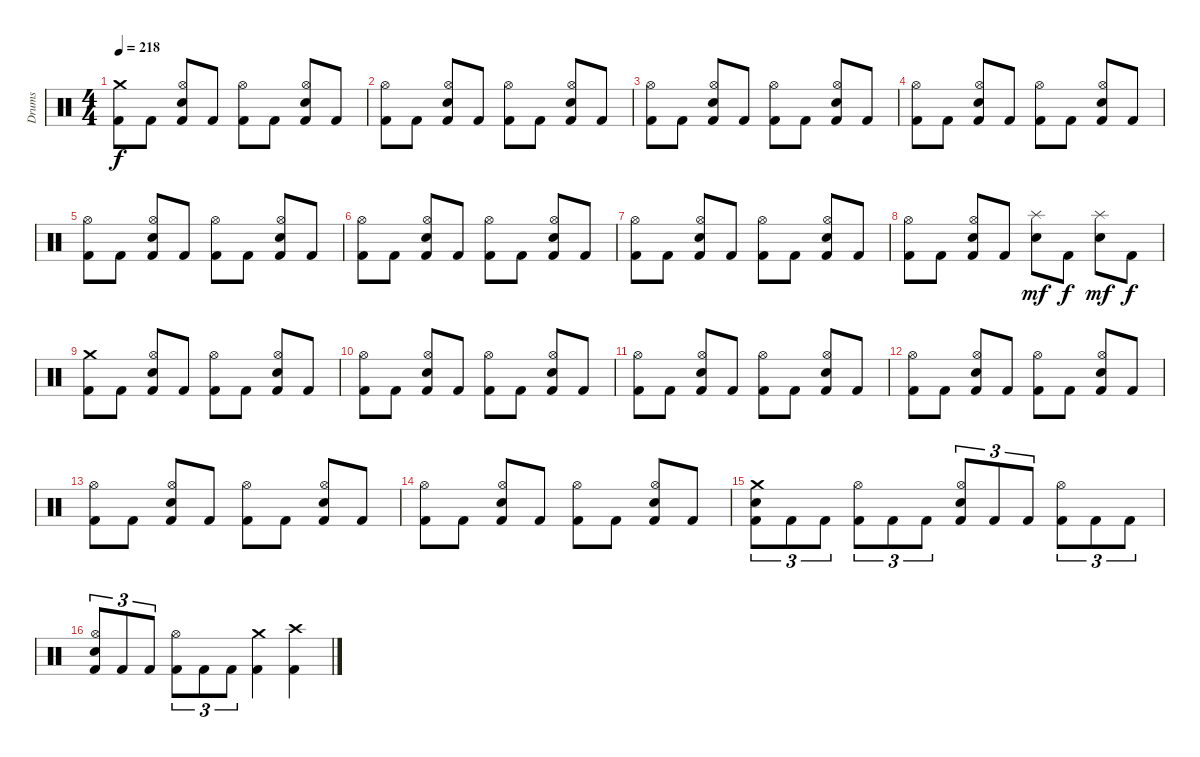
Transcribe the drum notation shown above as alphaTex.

\track ("Drums" "Drums") {instrument percussion}
\staff {score}
\articulation defaults
\ts (4 4)
\tempo 218
\clef neutral
\ks c
("Crash medium (hit)" "Kick (hit) 2").8{dy f} "Kick (hit) 2".8 ("Hi-Hat (open)" "Snare (hit) 2" "Kick (hit) 2").8 "Kick (hit) 2".8 ("Hi-Hat (open)" "Kick (hit) 2").8 "Kick (hit) 2".8 ("Hi-Hat (open)" "Snare (hit) 2" "Kick (hit) 2").8 "Kick (hit) 2".8 |
("Hi-Hat (open)" "Kick (hit) 2").8 "Kick (hit) 2".8 ("Hi-Hat (open)" "Snare (hit) 2" "Kick (hit) 2").8 "Kick (hit) 2".8 ("Hi-Hat (open)" "Kick (hit) 2").8 "Kick (hit) 2".8 ("Hi-Hat (open)" "Snare (hit) 2" "Kick (hit) 2").8 "Kick (hit) 2".8 |
("Hi-Hat (open)" "Kick (hit) 2").8 "Kick (hit) 2".8 ("Hi-Hat (open)" "Snare (hit) 2" "Kick (hit) 2").8 "Kick (hit) 2".8 ("Hi-Hat (open)" "Kick (hit) 2").8 "Kick (hit) 2".8 ("Hi-Hat (open)" "Snare (hit) 2" "Kick (hit) 2").8 "Kick (hit) 2".8 |
("Hi-Hat (open)" "Kick (hit) 2").8 "Kick (hit) 2".8 ("Hi-Hat (open)" "Snare (hit) 2" "Kick (hit) 2").8 "Kick (hit) 2".8 ("Hi-Hat (open)" "Kick (hit) 2").8 "Kick (hit) 2".8 ("Hi-Hat (open)" "Snare (hit) 2" "Kick (hit) 2").8 "Kick (hit) 2".8 |
("Hi-Hat (open)" "Kick (hit) 2").8 "Kick (hit) 2".8 ("Hi-Hat (open)" "Snare (hit) 2" "Kick (hit) 2").8 "Kick (hit) 2".8 ("Hi-Hat (open)" "Kick (hit) 2").8 "Kick (hit) 2".8 ("Hi-Hat (open)" "Snare (hit) 2" "Kick (hit) 2").8 "Kick (hit) 2".8 |
("Hi-Hat (open)" "Kick (hit) 2").8 "Kick (hit) 2".8 ("Hi-Hat (open)" "Snare (hit) 2" "Kick (hit) 2").8 "Kick (hit) 2".8 ("Hi-Hat (open)" "Kick (hit) 2").8 "Kick (hit) 2".8 ("Hi-Hat (open)" "Snare (hit) 2" "Kick (hit) 2").8 "Kick (hit) 2".8 |
("Hi-Hat (open)" "Kick (hit) 2").8 "Kick (hit) 2".8 ("Hi-Hat (open)" "Snare (hit) 2" "Kick (hit) 2").8 "Kick (hit) 2".8 ("Hi-Hat (open)" "Kick (hit) 2").8 "Kick (hit) 2".8 ("Hi-Hat (open)" "Snare (hit) 2" "Kick (hit) 2").8 "Kick (hit) 2".8 |
("Hi-Hat (open)" "Kick (hit) 2").8 "Kick (hit) 2".8 ("Hi-Hat (open)" "Snare (hit) 2" "Kick (hit) 2").8 "Kick (hit) 2".8 ("Splash (hit)" "Snare (hit) 2").8{dy mf} "Kick (hit) 2".8{dy f} ("Splash (hit)" "Snare (hit) 2").8{dy mf} "Kick (hit) 2".8{dy f} |
("Crash medium (hit)" "Kick (hit) 2").8 "Kick (hit) 2".8 ("Hi-Hat (open)" "Snare (hit) 2" "Kick (hit) 2").8 "Kick (hit) 2".8 ("Hi-Hat (open)" "Kick (hit) 2").8 "Kick (hit) 2".8 ("Hi-Hat (open)" "Snare (hit) 2" "Kick (hit) 2").8 "Kick (hit) 2".8 |
("Hi-Hat (open)" "Kick (hit) 2").8 "Kick (hit) 2".8 ("Hi-Hat (open)" "Snare (hit) 2" "Kick (hit) 2").8 "Kick (hit) 2".8 ("Hi-Hat (open)" "Kick (hit) 2").8 "Kick (hit) 2".8 ("Hi-Hat (open)" "Snare (hit) 2" "Kick (hit) 2").8 "Kick (hit) 2".8 |
("Hi-Hat (open)" "Kick (hit) 2").8 "Kick (hit) 2".8 ("Hi-Hat (open)" "Snare (hit) 2" "Kick (hit) 2").8 "Kick (hit) 2".8 ("Hi-Hat (open)" "Kick (hit) 2").8 "Kick (hit) 2".8 ("Hi-Hat (open)" "Snare (hit) 2" "Kick (hit) 2").8 "Kick (hit) 2".8 |
("Hi-Hat (open)" "Kick (hit) 2").8 "Kick (hit) 2".8 ("Hi-Hat (open)" "Snare (hit) 2" "Kick (hit) 2").8 "Kick (hit) 2".8 ("Hi-Hat (open)" "Kick (hit) 2").8 "Kick (hit) 2".8 ("Hi-Hat (open)" "Snare (hit) 2" "Kick (hit) 2").8 "Kick (hit) 2".8 |
("Hi-Hat (open)" "Kick (hit) 2").8 "Kick (hit) 2".8 ("Hi-Hat (open)" "Snare (hit) 2" "Kick (hit) 2").8 "Kick (hit) 2".8 ("Hi-Hat (open)" "Kick (hit) 2").8 "Kick (hit) 2".8 ("Hi-Hat (open)" "Snare (hit) 2" "Kick (hit) 2").8 "Kick (hit) 2".8 |
("Hi-Hat (open)" "Kick (hit) 2").8 "Kick (hit) 2".8 ("Hi-Hat (open)" "Snare (hit) 2" "Kick (hit) 2").8 "Kick (hit) 2".8 ("Hi-Hat (open)" "Kick (hit) 2").8 "Kick (hit) 2".8 ("Hi-Hat (open)" "Snare (hit) 2" "Kick (hit) 2").8 "Kick (hit) 2".8 |
("Crash medium (hit)" "Snare (hit) 2" "Kick (hit) 2").8{tu (3 2)} "Kick (hit) 2".8{tu (3 2)} "Kick (hit) 2".8{tu (3 2)} ("Hi-Hat (open)" "Kick (hit) 2").8{tu (3 2)} "Kick (hit) 2".8{tu (3 2)} "Kick (hit) 2".8{tu (3 2)} ("Hi-Hat (open)" "Snare (hit) 2" "Kick (hit) 2").8{tu (3 2)} "Kick (hit) 2".8{tu (3 2)} "Kick (hit) 2".8{tu (3 2)} ("Hi-Hat (open)" "Kick (hit) 2").8{tu (3 2)} "Kick (hit) 2".8{tu (3 2)} "Kick (hit) 2".8{tu (3 2)} |
("Hi-Hat (open)" "Snare (hit) 2" "Kick (hit) 2").8{tu (3 2)} "Kick (hit) 2".8{tu (3 2)} "Kick (hit) 2".8{tu (3 2)} ("Hi-Hat (open)" "Kick (hit) 2").8{tu (3 2)} "Kick (hit) 2".8{tu (3 2)} "Kick (hit) 2".8{tu (3 2)} ("Crash medium (hit)" "Kick (hit) 2").4 ("Crash high (hit)" "Kick (hit) 2").4
